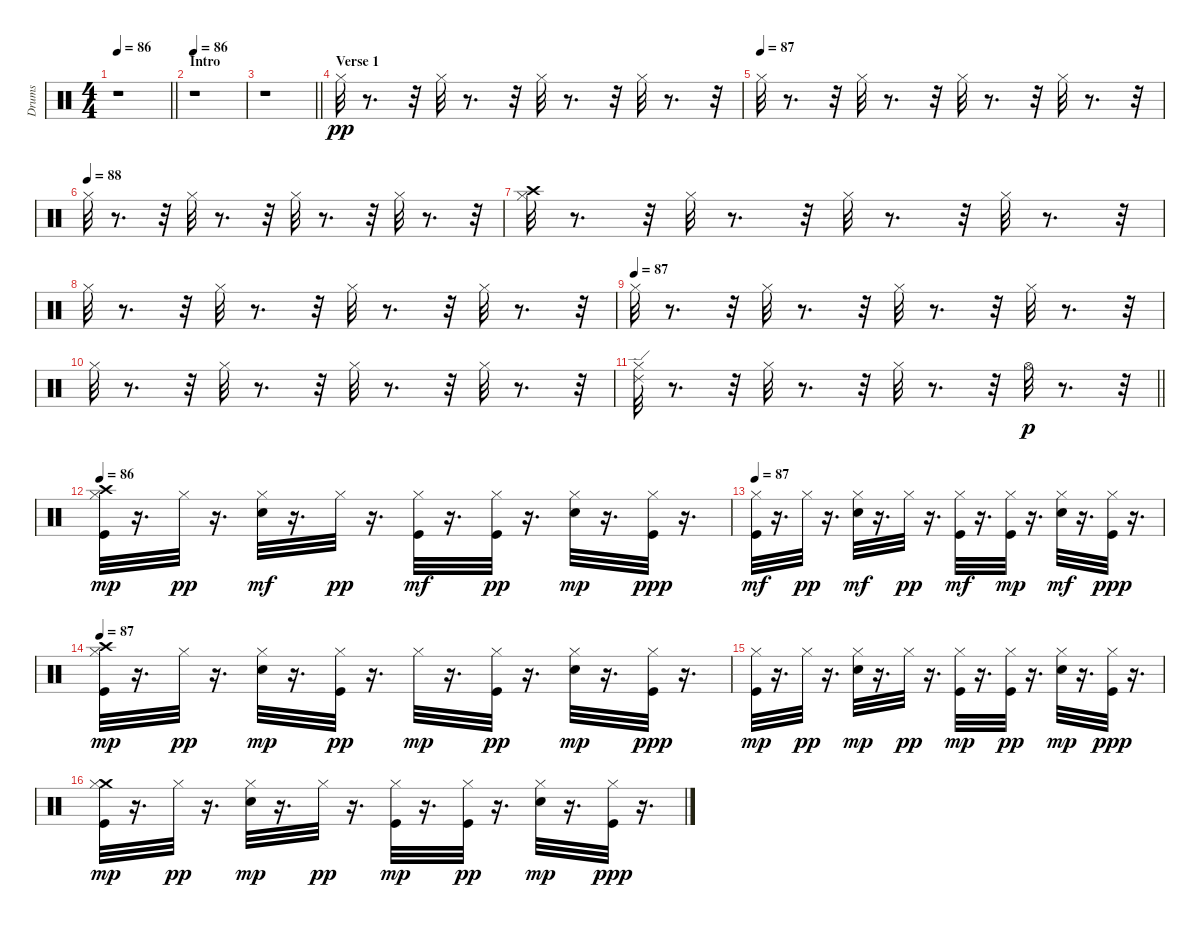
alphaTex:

\track ("Drums" "Drums") {instrument percussion}
\staff {score}
\articulation defaults
\ts (4 4)
\tempo 86
\clef neutral
\barLineRight lightlight
\ks c
r.1{dy pp} |
\section ("" "Intro")
\tempo 86
r.1 |
\barLineRight lightlight
r.1 |
\section ("" "Verse 1")
"Hi-Hat (closed)".32 r.8{d} r.32 "Hi-Hat (closed)".32 r.8{d} r.32 "Hi-Hat (closed)".32 r.8{d} r.32 "Hi-Hat (closed)".32 r.8{d} r.32 |
\tempo (87)
"Hi-Hat (closed)".32 r.8{d} r.32 "Hi-Hat (closed)".32 r.8{d} r.32 "Hi-Hat (closed)".32 r.8{d} r.32 "Hi-Hat (closed)".32 r.8{d} r.32 |
\tempo (88)
"Hi-Hat (closed)".32 r.8{d} r.32 "Hi-Hat (closed)".32 r.8{d} r.32 "Hi-Hat (closed)".32 r.8{d} r.32 "Hi-Hat (closed)".32 r.8{d} r.32 |
("Crash high (hit)" "Hi-Hat (closed)").32 r.8{d} r.32 "Hi-Hat (closed)".32 r.8{d} r.32 "Hi-Hat (closed)".32 r.8{d} r.32 "Hi-Hat (closed)".32 r.8{d} r.32 |
"Hi-Hat (closed)".32 r.8{d} r.32 "Hi-Hat (closed)".32 r.8{d} r.32 "Hi-Hat (closed)".32 r.8{d} r.32 "Hi-Hat (closed)".32 r.8{d} r.32 |
\tempo (87)
"Hi-Hat (closed)".32 r.8{d} r.32 "Hi-Hat (closed)".32 r.8{d} r.32 "Hi-Hat (closed)".32 r.8{d} r.32 "Hi-Hat (closed)".32 r.8{d} r.32 |
"Hi-Hat (closed)".32 r.8{d} r.32 "Hi-Hat (closed)".32 r.8{d} r.32 "Hi-Hat (closed)".32 r.8{d} r.32 "Hi-Hat (closed)".32 r.8{d} r.32 |
\barLineRight lightlight
("Ride (edge) 2" "Hi-Hat (closed)").32 r.8{d} r.32 "Hi-Hat (closed)".32 r.8{d} r.32 "Hi-Hat (closed)".32 r.8{d} r.32 "Hi-Hat (open)".32{dy p} r.8{d} r.32 |
\tempo 86
("Crash high (hit)" "Kick (hit)" "Hi-Hat (closed)").32{dy mp} r.16{d} "Hi-Hat (closed)".32{dy pp} r.16{d} ("Hi-Hat (closed)" "Electric Snare (hit)").32{dy mf} r.16{d} "Hi-Hat (closed)".32{dy pp} r.16{d} ("Hi-Hat (closed)" "Kick (hit)").32{dy mf} r.16{d} ("Kick (hit)" "Hi-Hat (closed)").32{dy pp} r.16{d} ("Electric Snare (hit)" "Hi-Hat (closed)").32{dy mp} r.16{d} ("Hi-Hat (closed)" "Kick (hit)").32{dy ppp} r.16{d} |
\tempo 87
("Hi-Hat (closed)" "Kick (hit)").32{dy mf} r.16{d} "Hi-Hat (closed)".32{dy pp} r.16{d} ("Hi-Hat (closed)" "Electric Snare (hit)").32{dy mf} r.16{d} "Hi-Hat (closed)".32{dy pp} r.16{d} ("Hi-Hat (closed)" "Kick (hit)").32{dy mf} r.16{d} ("Hi-Hat (closed)" "Kick (hit)").32{dy mp} r.16{d} ("Hi-Hat (closed)" "Electric Snare (hit)").32{dy mf} r.16{d} ("Hi-Hat (closed)" "Kick (hit)").32{dy ppp} r.16{d} |
\tempo 87
("Kick (hit)" "Crash high (hit)" "Hi-Hat (closed)").32{dy mp} r.16{d} "Hi-Hat (closed)".32{dy pp} r.16{d} ("Electric Snare (hit)" "Hi-Hat (closed)").32{dy mp} r.16{d} ("Kick (hit)" "Hi-Hat (closed)").32{dy pp} r.16{d} "Hi-Hat (closed)".32{dy mp} r.16{d} ("Kick (hit)" "Hi-Hat (closed)").32{dy pp} r.16{d} ("Electric Snare (hit)" "Hi-Hat (closed)").32{dy mp} r.16{d} ("Kick (hit)" "Hi-Hat (closed)").32{dy ppp} r.16{d} |
("Kick (hit)" "Hi-Hat (closed)").32{dy mp} r.16{d} "Hi-Hat (closed)".32{dy pp} r.16{d} ("Electric Snare (hit)" "Hi-Hat (closed)").32{dy mp} r.16{d} "Hi-Hat (closed)".32{dy pp} r.16{d} ("Kick (hit)" "Hi-Hat (closed)").32{dy mp} r.16{d} ("Kick (hit)" "Hi-Hat (closed)").32{dy pp} r.16{d} ("Electric Snare (hit)" "Hi-Hat (closed)").32{dy mp} r.16{d} ("Kick (hit)" "Hi-Hat (closed)").32{dy ppp} r.16{d} |
("Kick (hit)" "Crash medium (hit)" "Hi-Hat (closed)").32{dy mp} r.16{d} "Hi-Hat (closed)".32{dy pp} r.16{d} ("Electric Snare (hit)" "Hi-Hat (closed)").32{dy mp} r.16{d} "Hi-Hat (closed)".32{dy pp} r.16{d} ("Kick (hit)" "Hi-Hat (closed)").32{dy mp} r.16{d} ("Kick (hit)" "Hi-Hat (closed)").32{dy pp} r.16{d} ("Electric Snare (hit)" "Hi-Hat (closed)").32{dy mp} r.16{d} ("Kick (hit)" "Hi-Hat (closed)").32{dy ppp} r.16{d}
